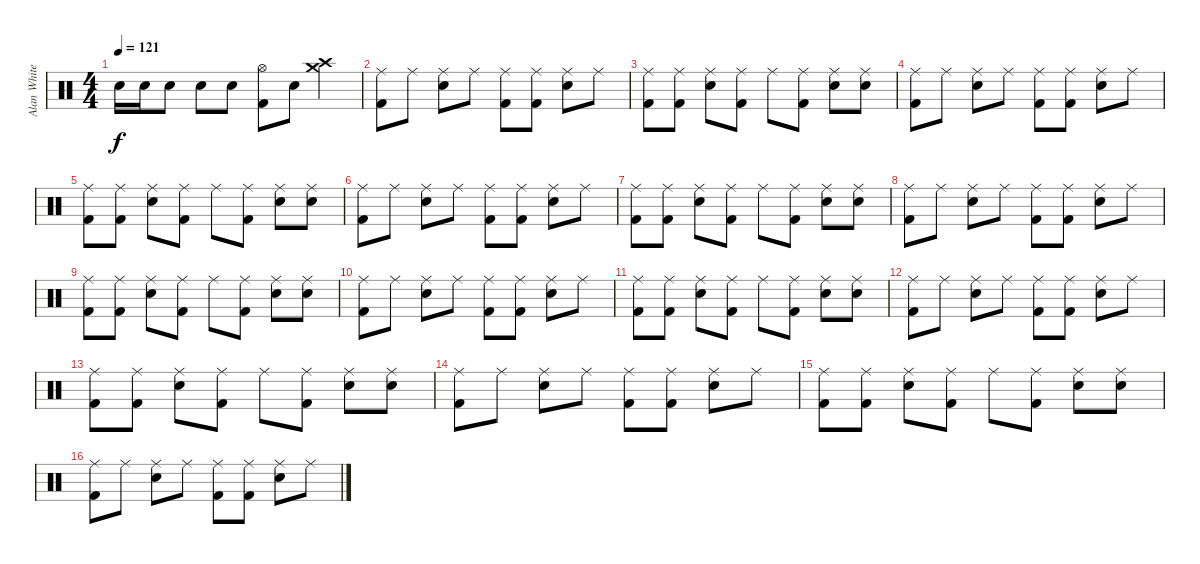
\track ("Alan White - Drums" "Alan White") {instrument percussion}
\staff {score}
\articulation defaults
\ts (4 4)
\tempo 121
\clef neutral
\ks c "Electric Snare (hit)".16{dy f} "Electric Snare (hit)".16 "Electric Snare (hit)".8 "Electric Snare (hit)".8 "Electric Snare (hit)".8
("Hi-Hat (open)" "Kick (hit) 2").8 "Electric Snare (hit)".8 ("Crash medium (hit)" "Crash high (hit)").4 |
("Ride (middle)" "Kick (hit) 2").8 "Ride (middle)".8 ("Ride (middle)" "Electric Snare (hit)").8 "Ride (middle)".8 ("Ride (middle)" "Kick (hit) 2").8 ("Ride (middle)" "Kick (hit) 2").8 ("Ride (middle)" "Electric Snare (hit)").8 "Ride (middle)".8 |
("Ride (middle)" "Kick (hit) 2").8 ("Ride (middle)" "Kick (hit) 2").8 ("Ride (middle)" "Electric Snare (hit)").8 ("Ride (middle)" "Kick (hit) 2").8 "Ride (middle)".8 ("Ride (middle)" "Kick (hit) 2").8 ("Ride (middle)" "Electric Snare (hit)").8 ("Ride (middle)" "Electric Snare (hit)").8 |
("Ride (middle)" "Kick (hit) 2").8 "Ride (middle)".8 ("Ride (middle)" "Electric Snare (hit)").8 "Ride (middle)".8 ("Ride (middle)" "Kick (hit) 2").8 ("Ride (middle)" "Kick (hit) 2").8 ("Ride (middle)" "Electric Snare (hit)").8 "Ride (middle)".8 |
("Ride (middle)" "Kick (hit) 2").8 ("Ride (middle)" "Kick (hit) 2").8 ("Ride (middle)" "Electric Snare (hit)").8 ("Ride (middle)" "Kick (hit) 2").8 "Ride (middle)".8 ("Ride (middle)" "Kick (hit) 2").8 ("Ride (middle)" "Electric Snare (hit)").8 ("Ride (middle)" "Electric Snare (hit)").8 |
("Ride (middle)" "Kick (hit) 2").8 "Ride (middle)".8 ("Ride (middle)" "Electric Snare (hit)").8 "Ride (middle)".8 ("Ride (middle)" "Kick (hit) 2").8 ("Ride (middle)" "Kick (hit) 2").8 ("Ride (middle)" "Electric Snare (hit)").8 "Ride (middle)".8 |
("Ride (middle)" "Kick (hit) 2").8 ("Ride (middle)" "Kick (hit) 2").8 ("Ride (middle)" "Electric Snare (hit)").8 ("Ride (middle)" "Kick (hit) 2").8 "Ride (middle)".8 ("Ride (middle)" "Kick (hit) 2").8 ("Ride (middle)" "Electric Snare (hit)").8 ("Ride (middle)" "Electric Snare (hit)").8 |
("Ride (middle)" "Kick (hit) 2").8 "Ride (middle)".8 ("Ride (middle)" "Electric Snare (hit)").8 "Ride (middle)".8 ("Ride (middle)" "Kick (hit) 2").8 ("Ride (middle)" "Kick (hit) 2").8 ("Ride (middle)" "Electric Snare (hit)").8 "Ride (middle)".8 |
("Ride (middle)" "Kick (hit) 2").8 ("Ride (middle)" "Kick (hit) 2").8 ("Ride (middle)" "Electric Snare (hit)").8 ("Ride (middle)" "Kick (hit) 2").8 "Ride (middle)".8 ("Ride (middle)" "Kick (hit) 2").8 ("Ride (middle)" "Electric Snare (hit)").8 ("Ride (middle)" "Electric Snare (hit)").8 |
("Ride (middle)" "Kick (hit) 2").8 "Ride (middle)".8 ("Ride (middle)" "Electric Snare (hit)").8 "Ride (middle)".8 ("Ride (middle)" "Kick (hit) 2").8 ("Ride (middle)" "Kick (hit) 2").8 ("Ride (middle)" "Electric Snare (hit)").8 "Ride (middle)".8 |
("Ride (middle)" "Kick (hit) 2").8 ("Ride (middle)" "Kick (hit) 2").8 ("Ride (middle)" "Electric Snare (hit)").8 ("Ride (middle)" "Kick (hit) 2").8 "Ride (middle)".8 ("Ride (middle)" "Kick (hit) 2").8 ("Ride (middle)" "Electric Snare (hit)").8 ("Ride (middle)" "Electric Snare (hit)").8 |
("Ride (middle)" "Kick (hit) 2").8 "Ride (middle)".8 ("Ride (middle)" "Electric Snare (hit)").8 "Ride (middle)".8 ("Ride (middle)" "Kick (hit) 2").8 ("Ride (middle)" "Kick (hit) 2").8 ("Ride (middle)" "Electric Snare (hit)").8 "Ride (middle)".8 |
("Ride (middle)" "Kick (hit) 2").8 ("Ride (middle)" "Kick (hit) 2").8 ("Ride (middle)" "Electric Snare (hit)").8 ("Ride (middle)" "Kick (hit) 2").8 "Ride (middle)".8 ("Ride (middle)" "Kick (hit) 2").8 ("Ride (middle)" "Electric Snare (hit)").8 ("Ride (middle)" "Electric Snare (hit)").8 |
("Ride (middle)" "Kick (hit) 2").8 "Ride (middle)".8 ("Ride (middle)" "Electric Snare (hit)").8 "Ride (middle)".8 ("Ride (middle)" "Kick (hit) 2").8 ("Ride (middle)" "Kick (hit) 2").8 ("Ride (middle)" "Electric Snare (hit)").8 "Ride (middle)".8 |
("Ride (middle)" "Kick (hit) 2").8 ("Ride (middle)" "Kick (hit) 2").8 ("Ride (middle)" "Electric Snare (hit)").8 ("Ride (middle)" "Kick (hit) 2").8 "Ride (middle)".8 ("Ride (middle)" "Kick (hit) 2").8 ("Ride (middle)" "Electric Snare (hit)").8 ("Ride (middle)" "Electric Snare (hit)").8 |
("Ride (middle)" "Kick (hit) 2").8 "Ride (middle)".8 ("Ride (middle)" "Electric Snare (hit)").8 "Ride (middle)".8 ("Ride (middle)" "Kick (hit) 2").8 ("Ride (middle)" "Kick (hit) 2").8 ("Ride (middle)" "Electric Snare (hit)").8 "Ride (middle)".8
